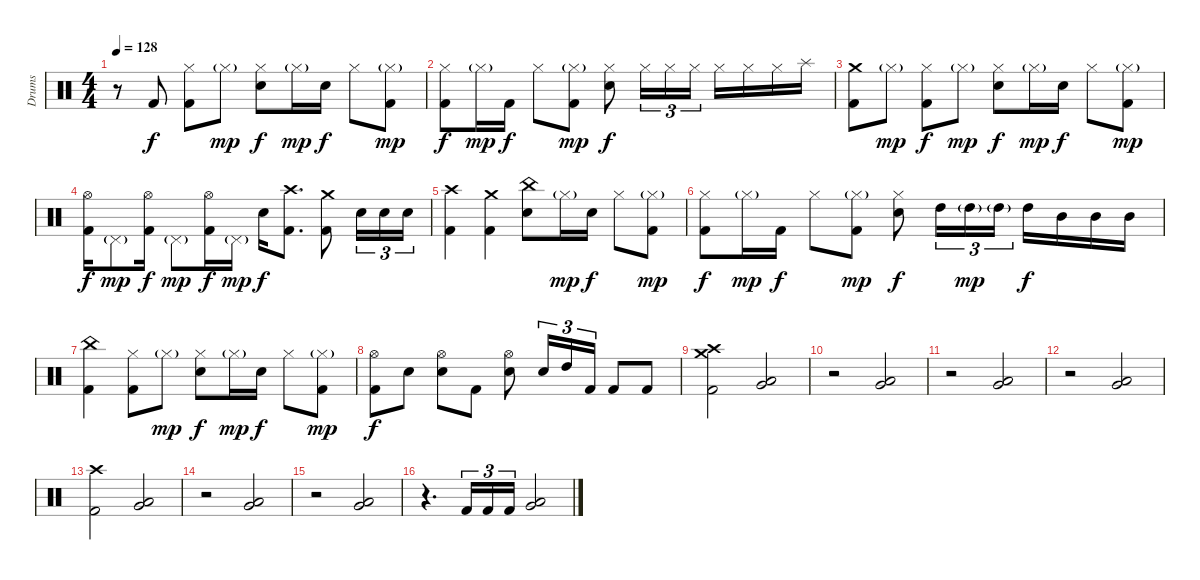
\track ("Drums" "Drums") {instrument percussion}
\staff {score}
\articulation defaults
\ts (4 4)
\tempo 128
\clef neutral
\ks c
r.8{dy f} "Kick (hit) 2".8 ("Hi-Hat (closed)" "Kick (hit) 2").8 "Hi-Hat (closed)"{g}.8{dy mp} ("Hi-Hat (closed)" "Snare (hit) 2").8{dy f} "Hi-Hat (closed)"{g}.16{dy mp} "Snare (hit) 2".16{dy f} "Hi-Hat (closed)".8 ("Hi-Hat (closed)"{g} "Kick (hit) 2").8{dy mp} |
("Hi-Hat (closed)" "Kick (hit) 2").8{dy f} "Hi-Hat (closed)"{g}.16{dy mp} "Kick (hit) 2".16{dy f} "Hi-Hat (closed)".8 ("Hi-Hat (closed)"{g} "Kick (hit) 2").8{dy mp} ("Hi-Hat (closed)" "Snare (hit) 2").8{dy f} "Hi-Hat (closed)".16{tu (3 2)} "Hi-Hat (closed)".16{tu (3 2)} "Hi-Hat (closed)".16{tu (3 2)} "Hi-Hat (closed)".16 "Hi-Hat (closed)".16 "Hi-Hat (closed)".16 "Splash (hit)".16 |
("Crash medium (hit)" "Kick (hit) 2").8 "Hi-Hat (closed)"{g}.8{dy mp} ("Hi-Hat (closed)" "Kick (hit) 2").8{dy f} "Hi-Hat (closed)"{g}.8{dy mp} ("Hi-Hat (closed)" "Snare (hit) 2").8{dy f} "Hi-Hat (closed)"{g}.16{dy mp} "Snare (hit) 2".16{dy f} "Hi-Hat (closed)".8 ("Hi-Hat (closed)"{g} "Kick (hit) 2").8{dy mp} |
("Hi-Hat (open)" "Kick (hit) 2").16{dy f} "Pedal Hi-Hat (hit)"{g}.8{dy mp} ("Hi-Hat (open)" "Kick (hit) 2").16{dy f} "Pedal Hi-Hat (hit)"{g}.8{dy mp} ("Hi-Hat (open)" "Kick (hit) 2").16{dy f} "Pedal Hi-Hat (hit)"{g}.16{dy mp} "Snare (hit) 2".16{dy f} ("Crash high (hit)" "Kick (hit) 2").8{d} ("Crash medium (hit)" "Kick (hit) 2").8 "Snare (hit) 2".16{tu (3 2)} "Snare (hit) 2".16{tu (3 2)} "Snare (hit) 2".16{tu (3 2)} |
("Crash high (hit)" "Kick (hit) 2").4 ("Crash medium (hit)" "Kick (hit) 2").4 ("China (hit)" "Snare (hit) 2").8 "Hi-Hat (closed)"{g}.16{dy mp} "Snare (hit) 2".16{dy f} "Hi-Hat (closed)".8 ("Hi-Hat (closed)"{g} "Kick (hit) 2").8{dy mp} |
("Hi-Hat (closed)" "Kick (hit) 2").8{dy f} "Hi-Hat (closed)"{g}.16{dy mp} "Kick (hit) 2".16{dy f} "Hi-Hat (closed)".8 ("Hi-Hat (closed)"{g} "Kick (hit) 2").8{dy mp} ("Hi-Hat (closed)" "Snare (hit) 2").8{dy f} "High Tom (hit)".16{tu (3 2)} "High Tom (hit)"{g}.16{tu (3 2) dy mp} "High Tom (hit)"{g}.16{tu (3 2)} "High Tom (hit)".16{dy f} "Mid Tom (hit)".16 "Mid Tom (hit)".16 "Mid Tom (hit)".16 |
("China (hit)" "Kick (hit) 2").4 ("Hi-Hat (closed)" "Kick (hit) 2").8 "Hi-Hat (closed)"{g}.8{dy mp} ("Hi-Hat (closed)" "Snare (hit) 2").8{dy f} "Hi-Hat (closed)"{g}.16{dy mp} "Snare (hit) 2".16{dy f} "Hi-Hat (closed)".8 ("Hi-Hat (closed)"{g} "Kick (hit) 2").8{dy mp} |
("Hi-Hat (open)" "Kick (hit) 2").8{dy f} "Snare (hit) 2".8 ("Hi-Hat (open)" "Snare (hit) 2").8 "Kick (hit) 2".8 ("Hi-Hat (open)" "Snare (hit) 2").8 "Snare (hit) 2".16{tu (3 2)} "High Tom (hit)".16{tu (3 2)} "Kick (hit) 2".16{tu (3 2)} "Kick (hit) 2".8 "Kick (hit) 2".8 |
("Crash high (hit)" "Crash medium (hit)" "Kick (hit) 2").2 ("Low Tom (hit)" "Very Low Tom (hit)").2 |
r.2 ("Low Tom (hit)" "Very Low Tom (hit)").2 |
r.2 ("Low Tom (hit)" "Very Low Tom (hit)").2 |
r.2 ("Low Tom (hit)" "Very Low Tom (hit)").2 |
("Crash high (hit)" "Kick (hit) 2").2 ("Low Tom (hit)" "Very Low Tom (hit)").2 |
r.2 ("Low Tom (hit)" "Very Low Tom (hit)").2 |
r.2 ("Low Tom (hit)" "Very Low Tom (hit)").2 |
r.4{d} "Kick (hit) 2".16{tu (3 2)} "Kick (hit) 2".16{tu (3 2)} "Kick (hit) 2".16{tu (3 2)} ("Low Tom (hit)" "Very Low Tom (hit)").2
